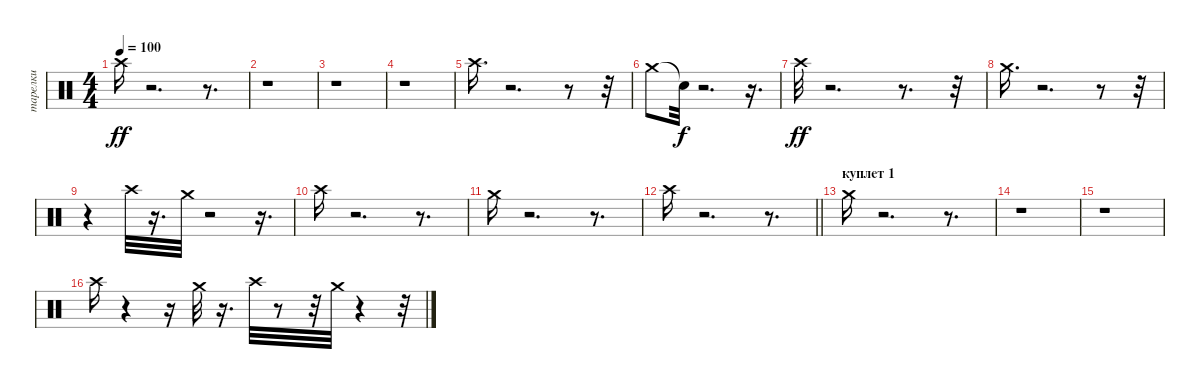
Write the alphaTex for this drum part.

\track ("тарелки" "тарелки") {instrument percussion}
\staff {score}
\articulation defaults
\ts (4 4)
\tempo 100
\clef neutral
\ks c "Crash high (hit)".16{dy ff}
r.2{d} r.8{d} |
r.1 |
r.1 |
r.1 |
"Crash high (hit)".16{d} r.2{d} r.8 r.32 |
"Crash medium (hit)".8 "Snare (hit)"{t}.32{dy f} r.2{d} r.16{d} |
"Crash high (hit)".32{dy ff} r.2{d} r.8{d} r.32 |
"Crash medium (hit)".16{d} r.2{d} r.8 r.32 |
r.4 "Crash high (hit)".32 r.16{d} "Crash medium (hit)".32 r.2 r.16{d} |
"Crash high (hit)".16 r.2{d} r.8{d} |
"Crash medium (hit)".16 r.2{d} r.8{d} |
\barLineRight lightlight "Crash high (hit)".16
r.2{d} r.8{d} |
\section ("" "куплет 1")
"Crash medium (hit)".16 r.2{d} r.8{d} |
r.1 |
r.1 |
"Crash high (hit)".16 r.4 r.16 "Crash medium (hit)".32 r.16{d} "Crash high (hit)".32 r.8 r.32 "Crash medium (hit)".32 r.4 r.32
